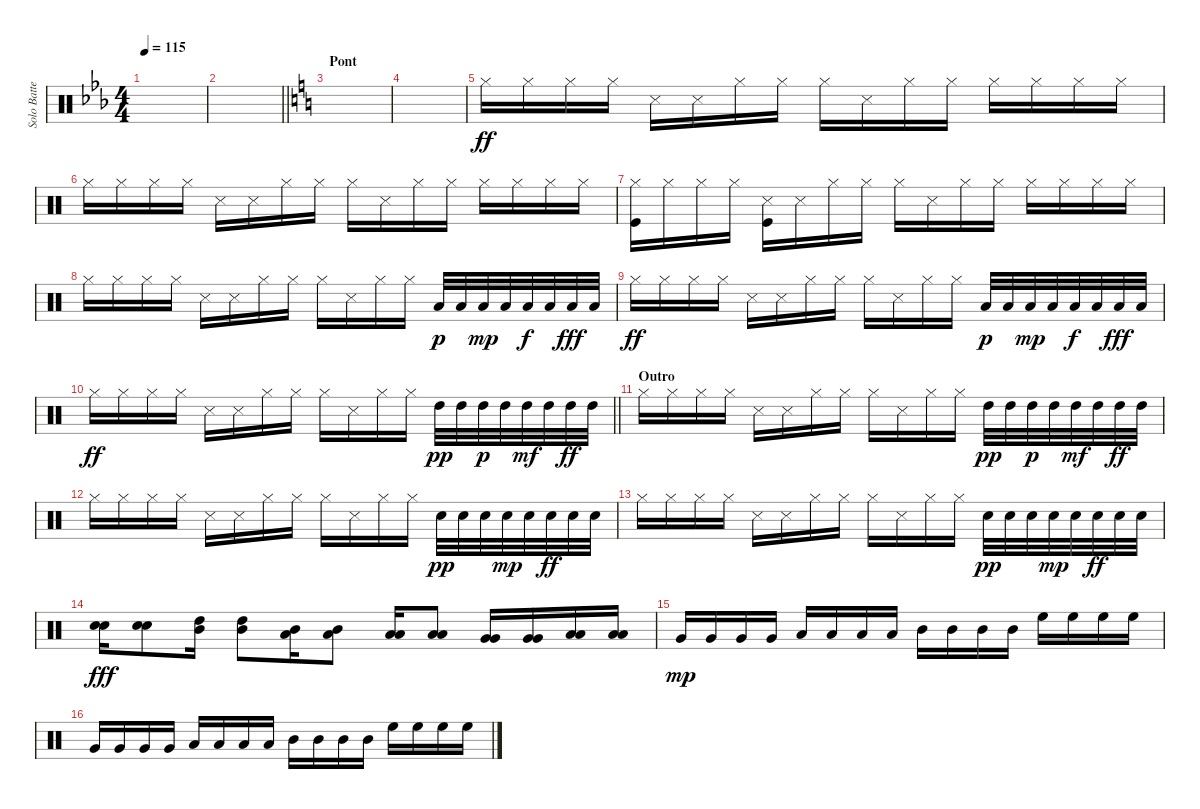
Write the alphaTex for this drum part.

\track ("Solo Batterie" "Solo Batte") {instrument percussion}
\staff {score}
\articulation defaults
\ts (4 4)
\tempo 115
\clef neutral
\ks eb
|
\barLineRight lightlight
|
\section ("" "Pont")
\ks c
|
|
"Hi-Hat (closed)".16{dy ff} "Hi-Hat (closed)".16 "Hi-Hat (closed)".16 "Hi-Hat (closed)".16 "Snare (side stick) 3".16 "Snare (side stick) 3".16 "Hi-Hat (closed)".16 "Hi-Hat (closed)".16 "Hi-Hat (closed)".16 "Snare (side stick) 3".16 "Hi-Hat (closed)".16 "Hi-Hat (closed)".16 "Hi-Hat (closed)".16 "Hi-Hat (closed)".16 "Hi-Hat (closed)".16 "Hi-Hat (closed)".16 |
"Hi-Hat (closed)".16 "Hi-Hat (closed)".16 "Hi-Hat (closed)".16 "Hi-Hat (closed)".16 "Snare (side stick) 3".16 "Snare (side stick) 3".16 "Hi-Hat (closed)".16 "Hi-Hat (closed)".16 "Hi-Hat (closed)".16 "Snare (side stick) 3".16 "Hi-Hat (closed)".16 "Hi-Hat (closed)".16 "Hi-Hat (closed)".16 "Hi-Hat (closed)".16 "Hi-Hat (closed)".16 "Hi-Hat (closed)".16 |
("Hi-Hat (closed)" "Kick (hit)").16 "Hi-Hat (closed)".16 "Hi-Hat (closed)".16 "Hi-Hat (closed)".16 ("Snare (side stick) 3" "Kick (hit)").16 "Snare (side stick) 3".16 "Hi-Hat (closed)".16 "Hi-Hat (closed)".16 "Hi-Hat (closed)".16 "Snare (side stick) 3".16 "Hi-Hat (closed)".16 "Hi-Hat (closed)".16 "Hi-Hat (closed)".16 "Hi-Hat (closed)".16 "Hi-Hat (closed)".16 "Hi-Hat (closed)".16 |
"Hi-Hat (closed)".16 "Hi-Hat (closed)".16 "Hi-Hat (closed)".16 "Hi-Hat (closed)".16 "Snare (side stick) 3".16 "Snare (side stick) 3".16 "Hi-Hat (closed)".16 "Hi-Hat (closed)".16 "Hi-Hat (closed)".16 "Snare (side stick) 3".16 "Hi-Hat (closed)".16 "Hi-Hat (closed)".16 "Low Tom (hit)".32{dy p} "Low Tom (hit)".32 "Low Tom (hit)".32{dy mp} "Low Tom (hit)".32 "Low Tom (hit)".32{dy f} "Low Tom (hit)".32 "Low Tom (hit)".32{dy fff} "Low Tom (hit)".32 |
"Hi-Hat (closed)".16{dy ff} "Hi-Hat (closed)".16 "Hi-Hat (closed)".16 "Hi-Hat (closed)".16 "Snare (side stick) 3".16 "Snare (side stick) 3".16 "Hi-Hat (closed)".16 "Hi-Hat (closed)".16 "Hi-Hat (closed)".16 "Snare (side stick) 3".16 "Hi-Hat (closed)".16 "Hi-Hat (closed)".16 "Low Tom (hit)".32{dy p} "Low Tom (hit)".32 "Low Tom (hit)".32{dy mp} "Low Tom (hit)".32 "Low Tom (hit)".32{dy f} "Low Tom (hit)".32 "Low Tom (hit)".32{dy fff} "Low Tom (hit)".32 |
\barLineRight lightlight "Hi-Hat (closed)".16{dy ff} "Hi-Hat (closed)".16 "Hi-Hat (closed)".16 "Hi-Hat (closed)".16 "Snare (side stick) 3".16 "Snare (side stick) 3".16 "Hi-Hat (closed)".16 "Hi-Hat (closed)".16 "Hi-Hat (closed)".16 "Snare (side stick) 3".16 "Hi-Hat (closed)".16 "Hi-Hat (closed)".16 "High Tom (hit)".32{dy pp} "High Tom (hit)".32 "High Tom (hit)".32{dy p} "High Tom (hit)".32 "High Tom (hit)".32{dy mf} "High Tom (hit)".32 "High Tom (hit)".32{dy ff} "High Tom (hit)".32
|
\section ("" "Outro")
"Hi-Hat (closed)".16 "Hi-Hat (closed)".16 "Hi-Hat (closed)".16 "Hi-Hat (closed)".16 "Snare (side stick) 3".16 "Snare (side stick) 3".16 "Hi-Hat (closed)".16 "Hi-Hat (closed)".16 "Hi-Hat (closed)".16 "Snare (side stick) 3".16 "Hi-Hat (closed)".16 "Hi-Hat (closed)".16 "High Tom (hit)".32{dy pp} "High Tom (hit)".32 "High Tom (hit)".32{dy p} "High Tom (hit)".32 "High Tom (hit)".32{dy mf} "High Tom (hit)".32 "High Tom (hit)".32{dy ff} "High Tom (hit)".32 |
"Hi-Hat (closed)".16 "Hi-Hat (closed)".16 "Hi-Hat (closed)".16 "Hi-Hat (closed)".16 "Snare (side stick) 3".16 "Snare (side stick) 3".16 "Hi-Hat (closed)".16 "Hi-Hat (closed)".16 "Hi-Hat (closed)".16 "Snare (side stick) 3".16 "Hi-Hat (closed)".16 "Hi-Hat (closed)".16 "Snare (hit) 2".32{dy pp} "Snare (hit) 2".32 "Snare (hit) 2".32 "Snare (hit) 2".32{dy mp} "Snare (hit) 2".32 "Snare (hit) 2".32{dy ff} "Snare (hit) 2".32 "Snare (hit) 2".32 |
"Hi-Hat (closed)".16 "Hi-Hat (closed)".16 "Hi-Hat (closed)".16 "Hi-Hat (closed)".16 "Snare (side stick) 3".16 "Snare (side stick) 3".16 "Hi-Hat (closed)".16 "Hi-Hat (closed)".16 "Hi-Hat (closed)".16 "Snare (side stick) 3".16 "Hi-Hat (closed)".16 "Hi-Hat (closed)".16 "Snare (hit) 2".32{dy pp} "Snare (hit) 2".32 "Snare (hit) 2".32 "Snare (hit) 2".32{dy mp} "Snare (hit) 2".32 "Snare (hit) 2".32{dy ff} "Snare (hit) 2".32 "Snare (hit) 2".32 |
("Snare (hit) 2" "Snare (hit) 2").16{dy fff} ("Snare (hit) 2" "Snare (hit) 2").8 ("High Tom (hit)" "Mid Tom (hit)").16 ("High Tom (hit)" "Mid Tom (hit)").8 ("Mid Tom (hit)" "Low Tom (hit)").16 ("Mid Tom (hit)" "Low Tom (hit)").8 ("Low Tom (hit)" "Low Floor Tom (hit)").16 ("Low Tom (hit)" "Low Floor Tom (hit)").8 ("Very Low Tom (hit)" "Very Low Tom (hit)").16 ("Very Low Tom (hit)" "Very Low Tom (hit)").16 ("Low Floor Tom (hit)" "Low Floor Tom (hit)").16 ("Low Floor Tom (hit)" "Low Floor Tom (hit)").16 |
"Very Low Tom (hit)".16{dy mp} "Very Low Tom (hit)".16 "Very Low Tom (hit)".16 "Very Low Tom (hit)".16 "Low Tom (hit)".16 "Low Tom (hit)".16 "Low Tom (hit)".16 "Low Tom (hit)".16 "Mid Tom (hit)".16 "Mid Tom (hit)".16 "Mid Tom (hit)".16 "Mid Tom (hit)".16 "High Floor Tom (hit)".16 "High Floor Tom (hit)".16 "High Floor Tom (hit)".16 "High Floor Tom (hit)".16 |
"Very Low Tom (hit)".16 "Very Low Tom (hit)".16 "Very Low Tom (hit)".16 "Very Low Tom (hit)".16 "Low Tom (hit)".16 "Low Tom (hit)".16 "Low Tom (hit)".16 "Low Tom (hit)".16 "Mid Tom (hit)".16 "Mid Tom (hit)".16 "Mid Tom (hit)".16 "Mid Tom (hit)".16 "High Floor Tom (hit)".16 "High Floor Tom (hit)".16 "High Floor Tom (hit)".16 "High Floor Tom (hit)".16
